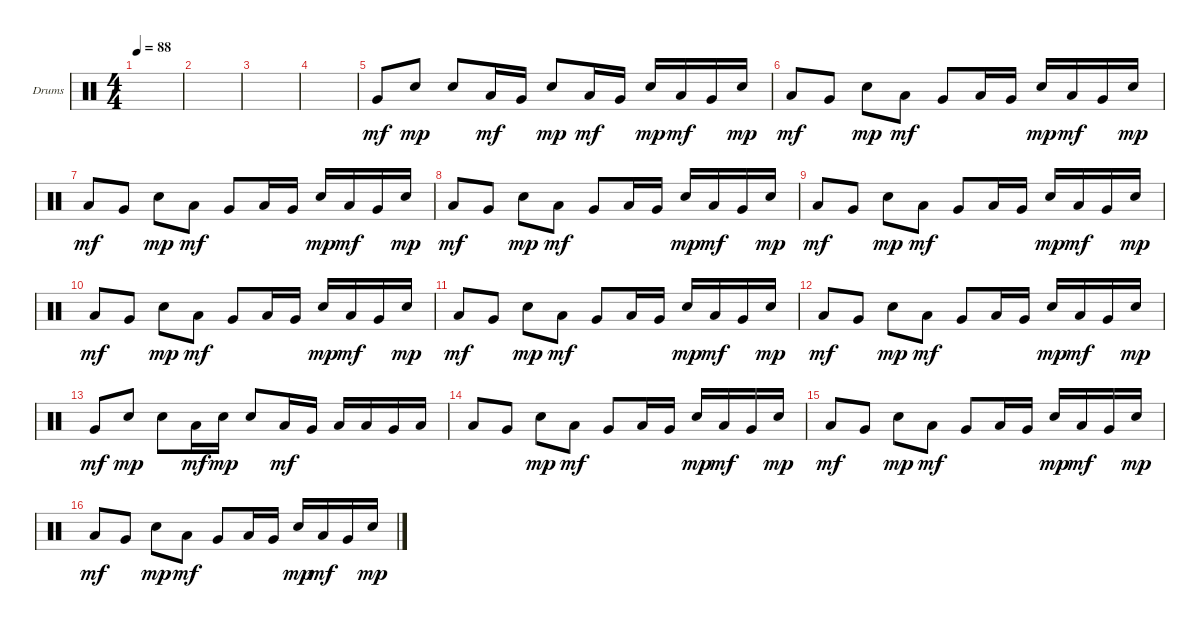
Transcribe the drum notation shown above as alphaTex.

\defaultSystemsLayout 4
\bracketExtendMode groupsimilarinstruments
\firstSystemTrackNameOrientation horizontal
\otherSystemsTrackNameOrientation horizontal
\track ("Helders" "Drums") {instrument percussion}
\staff {score}
\articulation defaults
\ts (4 4)
\tempo 88
\clef neutral
\ks c
|
|
|
|
"Very Low Tom (hit)".8{dy mf} "Snare (hit) 2".8{dy mp} "Snare (hit) 2".8 "Low Tom (hit)".16{dy mf} "Very Low Tom (hit)".16 "Snare (hit) 2".8{dy mp} "Low Tom (hit)".16{dy mf} "Very Low Tom (hit)".16 "Snare (hit) 2".16{dy mp} "Low Tom (hit)".16{dy mf} "Very Low Tom (hit)".16 "Snare (hit) 2".16{dy mp} |
"Low Tom (hit)".8{dy mf} "Very Low Tom (hit)".8 "Snare (hit) 2".8{dy mp} "Low Tom (hit)".8{dy mf} "Very Low Tom (hit)".8 "Low Tom (hit)".16 "Very Low Tom (hit)".16 "Snare (hit) 2".16{dy mp} "Low Tom (hit)".16{dy mf} "Very Low Tom (hit)".16 "Snare (hit) 2".16{dy mp} |
"Low Tom (hit)".8{dy mf} "Very Low Tom (hit)".8 "Snare (hit) 2".8{dy mp} "Low Tom (hit)".8{dy mf} "Very Low Tom (hit)".8 "Low Tom (hit)".16 "Very Low Tom (hit)".16 "Snare (hit) 2".16{dy mp} "Low Tom (hit)".16{dy mf} "Very Low Tom (hit)".16 "Snare (hit) 2".16{dy mp} |
"Low Tom (hit)".8{dy mf} "Very Low Tom (hit)".8 "Snare (hit) 2".8{dy mp} "Low Tom (hit)".8{dy mf} "Very Low Tom (hit)".8 "Low Tom (hit)".16 "Very Low Tom (hit)".16 "Snare (hit) 2".16{dy mp} "Low Tom (hit)".16{dy mf} "Very Low Tom (hit)".16 "Snare (hit) 2".16{dy mp} |
"Low Tom (hit)".8{dy mf} "Very Low Tom (hit)".8 "Snare (hit) 2".8{dy mp} "Low Tom (hit)".8{dy mf} "Very Low Tom (hit)".8 "Low Tom (hit)".16 "Very Low Tom (hit)".16 "Snare (hit) 2".16{dy mp} "Low Tom (hit)".16{dy mf} "Very Low Tom (hit)".16 "Snare (hit) 2".16{dy mp} |
"Low Tom (hit)".8{dy mf} "Very Low Tom (hit)".8 "Snare (hit) 2".8{dy mp} "Low Tom (hit)".8{dy mf} "Very Low Tom (hit)".8 "Low Tom (hit)".16 "Very Low Tom (hit)".16 "Snare (hit) 2".16{dy mp} "Low Tom (hit)".16{dy mf} "Very Low Tom (hit)".16 "Snare (hit) 2".16{dy mp} |
"Low Tom (hit)".8{dy mf} "Very Low Tom (hit)".8 "Snare (hit) 2".8{dy mp} "Low Tom (hit)".8{dy mf} "Very Low Tom (hit)".8 "Low Tom (hit)".16 "Very Low Tom (hit)".16 "Snare (hit) 2".16{dy mp} "Low Tom (hit)".16{dy mf} "Very Low Tom (hit)".16 "Snare (hit) 2".16{dy mp} |
"Low Tom (hit)".8{dy mf} "Very Low Tom (hit)".8 "Snare (hit) 2".8{dy mp} "Low Tom (hit)".8{dy mf} "Very Low Tom (hit)".8 "Low Tom (hit)".16 "Very Low Tom (hit)".16 "Snare (hit) 2".16{dy mp} "Low Tom (hit)".16{dy mf} "Very Low Tom (hit)".16 "Snare (hit) 2".16{dy mp} |
"Very Low Tom (hit)".8{dy mf} "Snare (hit) 2".8{dy mp} "Snare (hit) 2".8 "Low Tom (hit)".16{dy mf} "Snare (hit) 2".16{dy mp} "Snare (hit) 2".8 "Low Tom (hit)".16{dy mf} "Very Low Tom (hit)".16 "Low Tom (hit)".16 "Low Tom (hit)".16 "Very Low Tom (hit)".16 "Low Tom (hit)".16 |
"Low Tom (hit)".8 "Very Low Tom (hit)".8 "Snare (hit) 2".8{dy mp} "Low Tom (hit)".8{dy mf} "Very Low Tom (hit)".8 "Low Tom (hit)".16 "Very Low Tom (hit)".16 "Snare (hit) 2".16{dy mp} "Low Tom (hit)".16{dy mf} "Very Low Tom (hit)".16 "Snare (hit) 2".16{dy mp} |
"Low Tom (hit)".8{dy mf} "Very Low Tom (hit)".8 "Snare (hit) 2".8{dy mp} "Low Tom (hit)".8{dy mf} "Very Low Tom (hit)".8 "Low Tom (hit)".16 "Very Low Tom (hit)".16 "Snare (hit) 2".16{dy mp} "Low Tom (hit)".16{dy mf} "Very Low Tom (hit)".16 "Snare (hit) 2".16{dy mp} |
"Low Tom (hit)".8{dy mf} "Very Low Tom (hit)".8 "Snare (hit) 2".8{dy mp} "Low Tom (hit)".8{dy mf} "Very Low Tom (hit)".8 "Low Tom (hit)".16 "Very Low Tom (hit)".16 "Snare (hit) 2".16{dy mp} "Low Tom (hit)".16{dy mf} "Very Low Tom (hit)".16 "Snare (hit) 2".16{dy mp}
